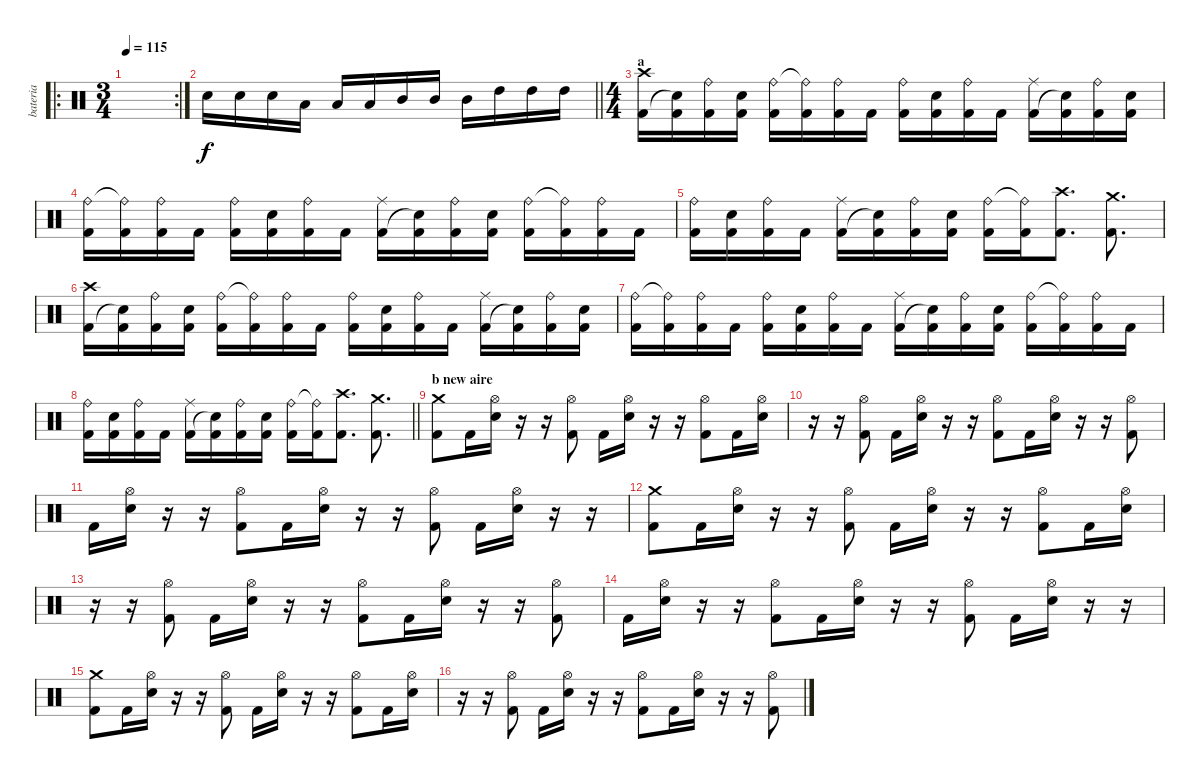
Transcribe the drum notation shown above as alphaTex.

\track ("bateria" "bateria") {instrument percussion}
\staff {score}
\articulation defaults
\ro
\rc 2
\ts (3 4)
\tempo 115
\clef neutral
\ks c
|
\barLineRight lightlight "Snare (hit) 2".16 "Snare (hit) 2".16 "Snare (hit) 2".16 "Low Tom (hit)".16 "Low Tom (hit)".16 "Low Tom (hit)".16 "Mid Tom (hit)".16 "Mid Tom (hit)".16 "Mid Tom (hit)".16 "High Tom (hit)".16 "High Tom (hit)".16 "High Tom (hit)".16
|
\ts (4 4)
\section ("" "a")
("Crash high (hit)" "Kick (hit) 2").16 ("Kick (hit) 2" "Snare (hit)"{t}).16 ("Ride (bell)" "Kick (hit) 2").16 ("Snare (hit) 2" "Kick (hit) 2").16 ("Ride (bell)" "Kick (hit) 2").16 ("Ride (bell)"{t} "Kick (hit) 2").16 ("Kick (hit) 2" "Ride (bell)").16 "Kick (hit) 2".16 ("Ride (bell)" "Kick (hit) 2").16 ("Kick (hit) 2" "Snare (hit) 2").16 ("Kick (hit) 2" "Ride (bell)").16 "Kick (hit) 2".16 ("Ride (middle)" "Kick (hit) 2").16 ("Kick (hit) 2" "Snare (hit)"{t}).16 ("Ride (bell)" "Kick (hit) 2").16 ("Snare (hit) 2" "Kick (hit) 2").16 |
("Ride (bell)" "Kick (hit) 2").16 ("Ride (bell)"{t} "Kick (hit) 2").16 ("Kick (hit) 2" "Ride (bell)").16 "Kick (hit) 2".16 ("Ride (bell)" "Kick (hit) 2").16 ("Kick (hit) 2" "Snare (hit) 2").16 ("Kick (hit) 2" "Ride (bell)").16 "Kick (hit) 2".16 ("Ride (middle)" "Kick (hit) 2").16 ("Kick (hit) 2" "Snare (hit)"{t}).16 ("Ride (bell)" "Kick (hit) 2").16 ("Snare (hit) 2" "Kick (hit) 2").16 ("Ride (bell)" "Kick (hit) 2").16 ("Ride (bell)"{t} "Kick (hit) 2").16 ("Kick (hit) 2" "Ride (bell)").16 "Kick (hit) 2".16 |
("Ride (bell)" "Kick (hit) 2").16 ("Kick (hit) 2" "Snare (hit) 2").16 ("Kick (hit) 2" "Ride (bell)").16 "Kick (hit) 2".16 ("Ride (middle)" "Kick (hit) 2").16 ("Kick (hit) 2" "Snare (hit)"{t}).16 ("Ride (bell)" "Kick (hit) 2").16 ("Snare (hit) 2" "Kick (hit) 2").16 ("Ride (bell)" "Kick (hit) 2").16 ("Ride (bell)"{t} "Kick (hit) 2").16 ("Kick (hit) 2" "Crash high (hit)").8{d} ("Crash medium (hit)" "Kick (hit) 2").8{d} |
("Crash high (hit)" "Kick (hit) 2").16 ("Kick (hit) 2" "Snare (hit)"{t}).16 ("Ride (bell)" "Kick (hit) 2").16 ("Snare (hit) 2" "Kick (hit) 2").16 ("Ride (bell)" "Kick (hit) 2").16 ("Ride (bell)"{t} "Kick (hit) 2").16 ("Kick (hit) 2" "Ride (bell)").16 "Kick (hit) 2".16 ("Ride (bell)" "Kick (hit) 2").16 ("Kick (hit) 2" "Snare (hit) 2").16 ("Kick (hit) 2" "Ride (bell)").16 "Kick (hit) 2".16 ("Ride (middle)" "Kick (hit) 2").16 ("Kick (hit) 2" "Snare (hit)"{t}).16 ("Ride (bell)" "Kick (hit) 2").16 ("Snare (hit) 2" "Kick (hit) 2").16 |
("Ride (bell)" "Kick (hit) 2").16 ("Ride (bell)"{t} "Kick (hit) 2").16 ("Kick (hit) 2" "Ride (bell)").16 "Kick (hit) 2".16 ("Ride (bell)" "Kick (hit) 2").16 ("Kick (hit) 2" "Snare (hit) 2").16 ("Kick (hit) 2" "Ride (bell)").16 "Kick (hit) 2".16 ("Ride (middle)" "Kick (hit) 2").16 ("Kick (hit) 2" "Snare (hit)"{t}).16 ("Ride (bell)" "Kick (hit) 2").16 ("Snare (hit) 2" "Kick (hit) 2").16 ("Ride (bell)" "Kick (hit) 2").16 ("Ride (bell)"{t} "Kick (hit) 2").16 ("Kick (hit) 2" "Ride (bell)").16 "Kick (hit) 2".16 |
\barLineRight lightlight
("Ride (bell)" "Kick (hit) 2").16 ("Kick (hit) 2" "Snare (hit) 2").16 ("Kick (hit) 2" "Ride (bell)").16 "Kick (hit) 2".16 ("Ride (middle)" "Kick (hit) 2").16 ("Kick (hit) 2" "Snare (hit)"{t}).16 ("Ride (bell)" "Kick (hit) 2").16 ("Snare (hit) 2" "Kick (hit) 2").16 ("Ride (bell)" "Kick (hit) 2").16 ("Ride (bell)"{t} "Kick (hit) 2").16 ("Kick (hit) 2" "Crash high (hit)").8{d} ("Crash medium (hit)" "Kick (hit) 2").8{d} |
\section ("" "b new aire")
("Kick (hit) 2" "Crash medium (hit)").8 "Kick (hit) 2".16 ("Electric Snare (hit)" "Hi-Hat (open)").16 r.16 r.16 ("Kick (hit) 2" "Hi-Hat (open)").8 "Kick (hit) 2".16 ("Hi-Hat (open)" "Electric Snare (hit)").16 r.16 r.16 ("Kick (hit) 2" "Hi-Hat (open)").8 "Kick (hit) 2".16 ("Hi-Hat (open)" "Electric Snare (hit)").16 |
r.16 r.16 ("Kick (hit) 2" "Hi-Hat (open)").8 "Kick (hit) 2".16 ("Hi-Hat (open)" "Electric Snare (hit)").16 r.16 r.16 ("Kick (hit) 2" "Hi-Hat (open)").8 "Kick (hit) 2".16 ("Hi-Hat (open)" "Electric Snare (hit)").16 r.16 r.16 ("Kick (hit) 2" "Hi-Hat (open)").8 |
"Kick (hit) 2".16 ("Electric Snare (hit)" "Hi-Hat (open)").16 r.16 r.16 ("Kick (hit) 2" "Hi-Hat (open)").8 "Kick (hit) 2".16 ("Hi-Hat (open)" "Electric Snare (hit)").16 r.16 r.16 ("Kick (hit) 2" "Hi-Hat (open)").8 "Kick (hit) 2".16 ("Hi-Hat (open)" "Electric Snare (hit)").16 r.16 r.16 |
("Kick (hit) 2" "Crash medium (hit)").8 "Kick (hit) 2".16 ("Electric Snare (hit)" "Hi-Hat (open)").16 r.16 r.16 ("Kick (hit) 2" "Hi-Hat (open)").8 "Kick (hit) 2".16 ("Hi-Hat (open)" "Electric Snare (hit)").16 r.16 r.16 ("Kick (hit) 2" "Hi-Hat (open)").8 "Kick (hit) 2".16 ("Hi-Hat (open)" "Electric Snare (hit)").16 |
r.16 r.16 ("Kick (hit) 2" "Hi-Hat (open)").8 "Kick (hit) 2".16 ("Hi-Hat (open)" "Electric Snare (hit)").16 r.16 r.16 ("Kick (hit) 2" "Hi-Hat (open)").8 "Kick (hit) 2".16 ("Hi-Hat (open)" "Electric Snare (hit)").16 r.16 r.16 ("Kick (hit) 2" "Hi-Hat (open)").8 |
"Kick (hit) 2".16 ("Electric Snare (hit)" "Hi-Hat (open)").16 r.16 r.16 ("Kick (hit) 2" "Hi-Hat (open)").8 "Kick (hit) 2".16 ("Hi-Hat (open)" "Electric Snare (hit)").16 r.16 r.16 ("Kick (hit) 2" "Hi-Hat (open)").8 "Kick (hit) 2".16 ("Hi-Hat (open)" "Electric Snare (hit)").16 r.16 r.16 |
("Kick (hit) 2" "Crash medium (hit)").8 "Kick (hit) 2".16 ("Electric Snare (hit)" "Hi-Hat (open)").16 r.16 r.16 ("Kick (hit) 2" "Hi-Hat (open)").8 "Kick (hit) 2".16 ("Hi-Hat (open)" "Electric Snare (hit)").16 r.16 r.16 ("Kick (hit) 2" "Hi-Hat (open)").8 "Kick (hit) 2".16 ("Hi-Hat (open)" "Electric Snare (hit)").16 |
r.16 r.16 ("Kick (hit) 2" "Hi-Hat (open)").8 "Kick (hit) 2".16 ("Hi-Hat (open)" "Electric Snare (hit)").16 r.16 r.16 ("Kick (hit) 2" "Hi-Hat (open)").8 "Kick (hit) 2".16 ("Hi-Hat (open)" "Electric Snare (hit)").16 r.16 r.16 ("Kick (hit) 2" "Hi-Hat (open)").8
